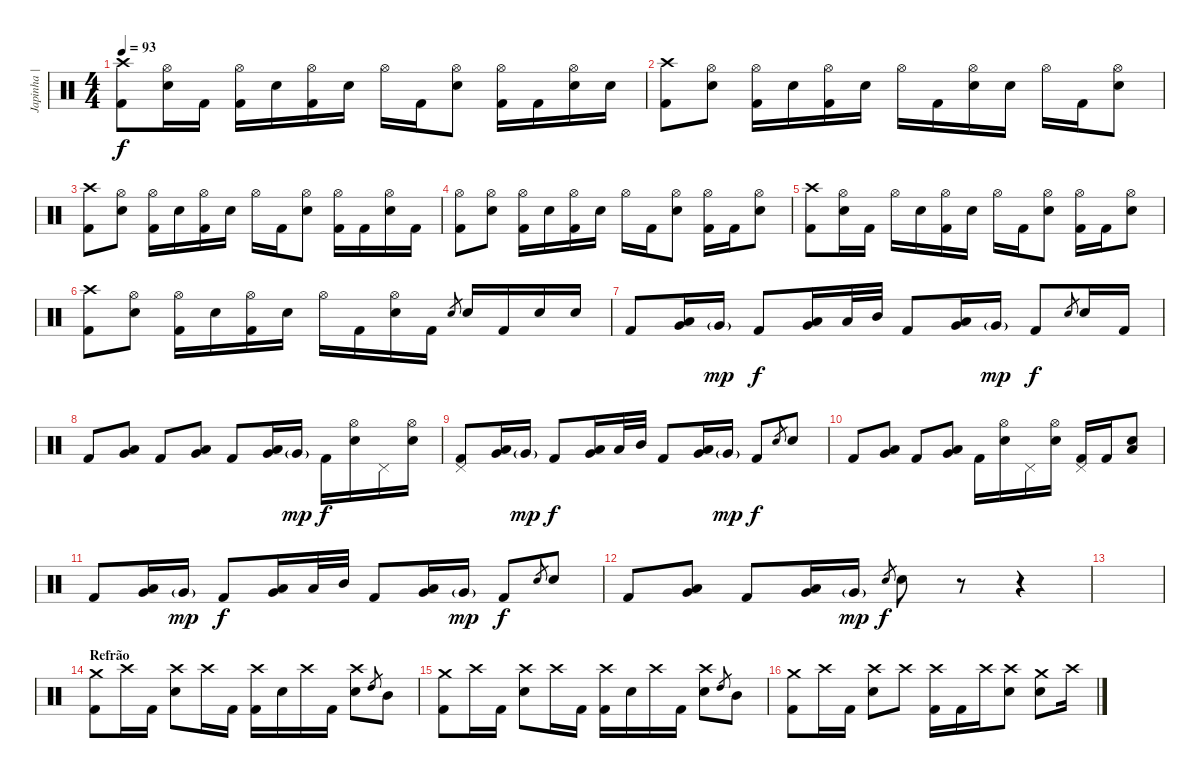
\track ("Japinha | Bateria" "Japinha | ") {instrument percussion}
\staff {score}
\articulation defaults
\ts (4 4)
\tempo 93
\clef neutral
\ks c
("Crash high (hit)" "Kick (hit) 2").8{dy f} ("Hi-Hat (open)" "Electric Snare (hit)").16 "Kick (hit) 2".16 ("Hi-Hat (open)" "Kick (hit) 2").16 "Electric Snare (hit)".16 ("Hi-Hat (open)" "Kick (hit) 2").16 "Electric Snare (hit)".16 "Hi-Hat (open)".16 "Kick (hit) 2".16 ("Hi-Hat (open)" "Electric Snare (hit)").8 ("Hi-Hat (open)" "Kick (hit) 2").16 "Kick (hit) 2".16 ("Hi-Hat (open)" "Electric Snare (hit)").16 "Electric Snare (hit)".16 |
("Crash high (hit)" "Kick (hit) 2").8 ("Hi-Hat (open)" "Electric Snare (hit)").8 ("Hi-Hat (open)" "Kick (hit) 2").16 "Electric Snare (hit)".16 ("Hi-Hat (open)" "Kick (hit) 2").16 "Electric Snare (hit)".16 "Hi-Hat (open)".16 "Kick (hit) 2".16 ("Hi-Hat (open)" "Electric Snare (hit)").16 "Electric Snare (hit)".16 "Hi-Hat (open)".16 "Kick (hit) 2".16 ("Hi-Hat (open)" "Electric Snare (hit)").8 |
("Crash high (hit)" "Kick (hit) 2").8 ("Hi-Hat (open)" "Electric Snare (hit)").8 ("Hi-Hat (open)" "Kick (hit) 2").16 "Electric Snare (hit)".16 ("Hi-Hat (open)" "Kick (hit) 2").16 "Electric Snare (hit)".16 "Hi-Hat (open)".16 "Kick (hit) 2".16 ("Hi-Hat (open)" "Electric Snare (hit)").8 ("Hi-Hat (open)" "Kick (hit) 2").16 "Kick (hit) 2".16 ("Hi-Hat (open)" "Electric Snare (hit)").16 "Kick (hit) 2".16 |
("Hi-Hat (open)" "Kick (hit) 2").8 ("Hi-Hat (open)" "Electric Snare (hit)").8 ("Hi-Hat (open)" "Kick (hit) 2").16 "Electric Snare (hit)".16 ("Hi-Hat (open)" "Kick (hit) 2").16 "Electric Snare (hit)".16 "Hi-Hat (open)".16 "Kick (hit) 2".16 ("Hi-Hat (open)" "Electric Snare (hit)").8 ("Hi-Hat (open)" "Kick (hit) 2").16 "Kick (hit) 2".16 ("Hi-Hat (open)" "Electric Snare (hit)").8 |
("Crash high (hit)" "Kick (hit) 2").8 ("Hi-Hat (open)" "Electric Snare (hit)").16 "Kick (hit) 2".16 "Hi-Hat (open)".16 "Electric Snare (hit)".16 ("Hi-Hat (open)" "Kick (hit) 2").16 "Electric Snare (hit)".16 "Hi-Hat (open)".16 "Kick (hit) 2".16 ("Hi-Hat (open)" "Electric Snare (hit)").8 ("Hi-Hat (open)" "Kick (hit) 2").16 "Kick (hit) 2".16 ("Hi-Hat (open)" "Electric Snare (hit)").8 |
("Crash high (hit)" "Kick (hit) 2").8 ("Hi-Hat (open)" "Electric Snare (hit)").8 ("Hi-Hat (open)" "Kick (hit) 2").16 "Electric Snare (hit)".16 ("Hi-Hat (open)" "Kick (hit) 2").16 "Electric Snare (hit)".16 "Hi-Hat (open)".16 "Kick (hit) 2".16 ("Hi-Hat (open)" "Electric Snare (hit)").16 "Kick (hit) 2".16 "Electric Snare (hit)".8{gr} "Electric Snare (hit)".16 "Kick (hit) 2".16 "Electric Snare (hit)".16 "Electric Snare (hit)".16 |
"Kick (hit) 2".8 ("Low Tom (hit)" "Very Low Tom (hit)").16 "Very Low Tom (hit)"{g}.16{dy mp} "Kick (hit) 2".8{dy f} ("Low Tom (hit)" "Very Low Tom (hit)").16 "Low Tom (hit)".32 "Mid Tom (hit)".32 "Kick (hit) 2".8 ("Low Tom (hit)" "Very Low Tom (hit)").16 "Very Low Tom (hit)"{g}.16{dy mp} "Kick (hit) 2".8{dy f} "Electric Snare (hit)".8{gr} "Electric Snare (hit)".16 "Kick (hit) 2".16 |
"Kick (hit) 2".8 ("Low Tom (hit)" "Very Low Tom (hit)").8 "Kick (hit) 2".8 ("Low Tom (hit)" "Very Low Tom (hit)").8 "Kick (hit) 2".8 ("Low Tom (hit)" "Very Low Tom (hit)").16 "Very Low Tom (hit)"{g}.16{dy mp} "Kick (hit) 2".16{dy f} ("Hi-Hat (open)" "Electric Snare (hit)").16 "Pedal Hi-Hat (hit)".16 ("Hi-Hat (open)" "Electric Snare (hit)").16 |
("Pedal Hi-Hat (hit)" "Kick (hit) 2").8 ("Low Tom (hit)" "Very Low Tom (hit)").16 "Very Low Tom (hit)"{g}.16{dy mp} "Kick (hit) 2".8{dy f} ("Low Tom (hit)" "Very Low Tom (hit)").16 "Low Tom (hit)".32 "Mid Tom (hit)".32 "Kick (hit) 2".8 ("Low Tom (hit)" "Very Low Tom (hit)").16 "Very Low Tom (hit)"{g}.16{dy mp} "Kick (hit) 2".8{dy f} "Electric Snare (hit)".8{gr} "Electric Snare (hit)".8 |
"Kick (hit) 2".8 ("Low Tom (hit)" "Very Low Tom (hit)").8 "Kick (hit) 2".8 ("Low Tom (hit)" "Very Low Tom (hit)").8 "Kick (hit) 2".16 ("Hi-Hat (open)" "Electric Snare (hit)").16 "Pedal Hi-Hat (hit)".16 ("Hi-Hat (open)" "Electric Snare (hit)").16 ("Kick (hit) 2" "Pedal Hi-Hat (hit)").16 "Kick (hit) 2".16 ("Low Tom (hit)" "Electric Snare (hit)").8 |
"Kick (hit) 2".8 ("Low Tom (hit)" "Very Low Tom (hit)").16 "Very Low Tom (hit)"{g}.16{dy mp} "Kick (hit) 2".8{dy f} ("Low Tom (hit)" "Very Low Tom (hit)").16 "Low Tom (hit)".32 "Mid Tom (hit)".32 "Kick (hit) 2".8 ("Low Tom (hit)" "Very Low Tom (hit)").16 "Very Low Tom (hit)"{g}.16{dy mp} "Kick (hit) 2".8{dy f} "Electric Snare (hit)".8{gr} "Electric Snare (hit)".8 |
"Kick (hit) 2".8 ("Low Tom (hit)" "Very Low Tom (hit)").8 "Kick (hit) 2".8 ("Low Tom (hit)" "Very Low Tom (hit)").16 "Very Low Tom (hit)"{g}.16{dy mp} "Electric Snare (hit)".8{gr dy f} "Electric Snare (hit)".8 r.8 r.4 |
|
\section ("" "Refrão")
("Crash medium (hit)" "Kick (hit) 2").8 "Crash high (hit)".16 "Kick (hit) 2".16 ("Crash high (hit)" "Electric Snare (hit)").8 "Crash high (hit)".16 "Kick (hit) 2".16 ("Crash high (hit)" "Kick (hit) 2").16 "Electric Snare (hit)".16 "Crash high (hit)".16 "Kick (hit) 2".16 ("Crash high (hit)" "Electric Snare (hit)").8 "High Tom (hit)".8{gr} "Mid Tom (hit)".8 |
("Crash medium (hit)" "Kick (hit) 2").8 "Crash high (hit)".16 "Kick (hit) 2".16 ("Crash high (hit)" "Electric Snare (hit)").8 "Crash high (hit)".16 "Kick (hit) 2".16 ("Crash high (hit)" "Kick (hit) 2").16 "Electric Snare (hit)".16 "Crash high (hit)".16 "Kick (hit) 2".16 ("Crash high (hit)" "Electric Snare (hit)").8 "High Tom (hit)".8{gr} "Mid Tom (hit)".8 |
("Crash medium (hit)" "Kick (hit) 2").8 "Crash high (hit)".16 "Kick (hit) 2".16 ("Crash high (hit)" "Electric Snare (hit)").8 "Crash high (hit)".8 ("Crash high (hit)" "Kick (hit) 2").16 "Kick (hit) 2".16 "Crash high (hit)".16 ("Crash high (hit)" "Electric Snare (hit)").8 ("Crash medium (hit)" "Electric Snare (hit)").8 "Crash high (hit)".16
